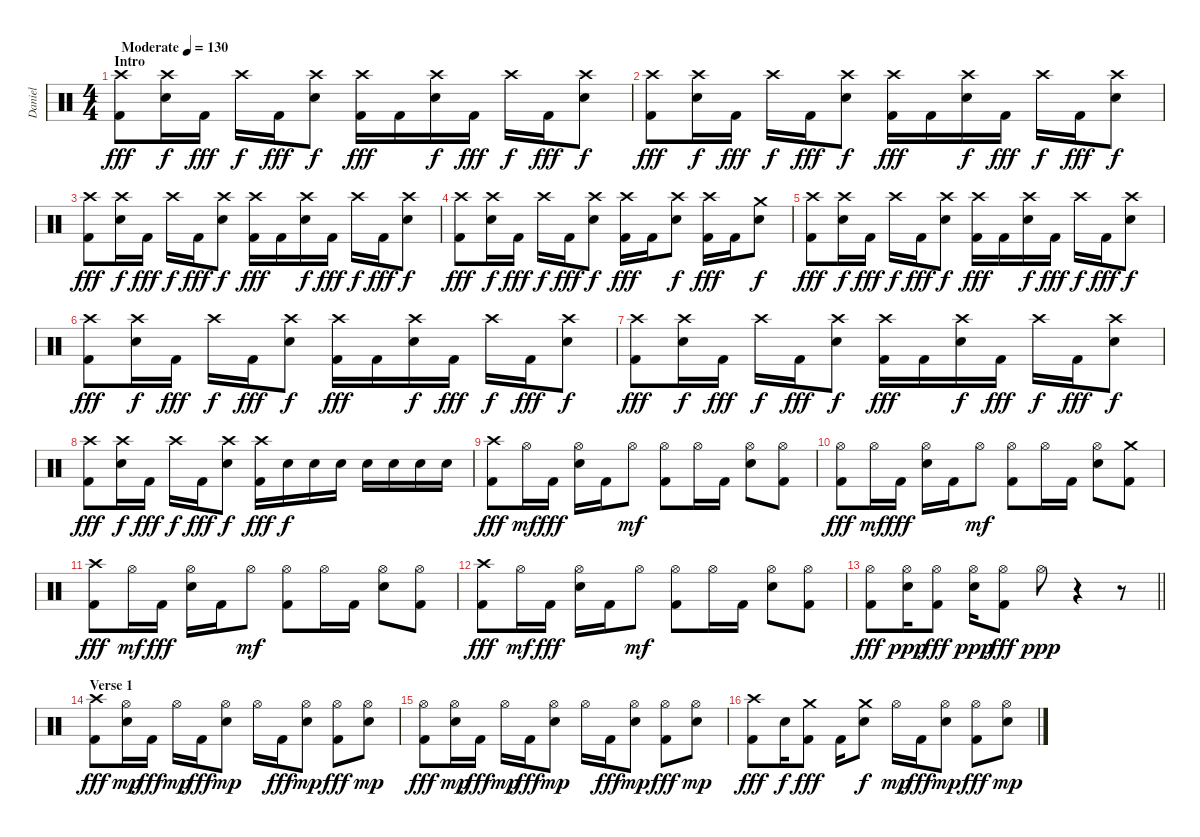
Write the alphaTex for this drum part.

\track ("Daniel" "Daniel") {instrument percussion}
\staff {score}
\articulation defaults
\ts (4 4)
\section ("" "Intro")
\tempo (130 "Moderate")
\clef neutral
\ks c
("Crash high (hit)" "Kick (hit) 2").8{dy fff} ("Crash high (hit)" "Electric Snare (hit)").16{dy f} "Kick (hit) 2".16{dy fff} "Crash high (hit)".16{dy f} "Kick (hit) 2".16{dy fff} ("Crash high (hit)" "Electric Snare (hit)").8{dy f} ("Crash high (hit)" "Kick (hit) 2").16{dy fff} "Kick (hit) 2".16 ("Crash high (hit)" "Electric Snare (hit)").16{dy f} "Kick (hit) 2".16{dy fff} "Crash high (hit)".16{dy f} "Kick (hit) 2".16{dy fff} ("Crash high (hit)" "Electric Snare (hit)").8{dy f} |
("Crash high (hit)" "Kick (hit) 2").8{dy fff} ("Crash high (hit)" "Electric Snare (hit)").16{dy f} "Kick (hit) 2".16{dy fff} "Crash high (hit)".16{dy f} "Kick (hit) 2".16{dy fff} ("Crash high (hit)" "Electric Snare (hit)").8{dy f} ("Crash high (hit)" "Kick (hit) 2").16{dy fff} "Kick (hit) 2".16 ("Crash high (hit)" "Electric Snare (hit)").16{dy f} "Kick (hit) 2".16{dy fff} "Crash high (hit)".16{dy f} "Kick (hit) 2".16{dy fff} ("Crash high (hit)" "Electric Snare (hit)").8{dy f} |
("Crash high (hit)" "Kick (hit) 2").8{dy fff} ("Crash high (hit)" "Electric Snare (hit)").16{dy f} "Kick (hit) 2".16{dy fff} "Crash high (hit)".16{dy f} "Kick (hit) 2".16{dy fff} ("Crash high (hit)" "Electric Snare (hit)").8{dy f} ("Crash high (hit)" "Kick (hit) 2").16{dy fff} "Kick (hit) 2".16 ("Crash high (hit)" "Electric Snare (hit)").16{dy f} "Kick (hit) 2".16{dy fff} "Crash high (hit)".16{dy f} "Kick (hit) 2".16{dy fff} ("Crash high (hit)" "Electric Snare (hit)").8{dy f} |
("Crash high (hit)" "Kick (hit) 2").8{dy fff} ("Crash high (hit)" "Electric Snare (hit)").16{dy f} "Kick (hit) 2".16{dy fff} "Crash high (hit)".16{dy f} "Kick (hit) 2".16{dy fff} ("Crash high (hit)" "Electric Snare (hit)").8{dy f} ("Crash high (hit)" "Kick (hit) 2").16{dy fff} "Kick (hit) 2".16 ("Crash high (hit)" "Electric Snare (hit)").8{dy f} ("Crash high (hit)" "Kick (hit) 2").16{dy fff} "Kick (hit) 2".16 ("Crash medium (hit)" "Electric Snare (hit)").8{dy f} |
("Crash high (hit)" "Kick (hit) 2").8{dy fff} ("Crash high (hit)" "Electric Snare (hit)").16{dy f} "Kick (hit) 2".16{dy fff} "Crash high (hit)".16{dy f} "Kick (hit) 2".16{dy fff} ("Crash high (hit)" "Electric Snare (hit)").8{dy f} ("Crash high (hit)" "Kick (hit) 2").16{dy fff} "Kick (hit) 2".16 ("Crash high (hit)" "Electric Snare (hit)").16{dy f} "Kick (hit) 2".16{dy fff} "Crash high (hit)".16{dy f} "Kick (hit) 2".16{dy fff} ("Crash high (hit)" "Electric Snare (hit)").8{dy f} |
("Crash high (hit)" "Kick (hit) 2").8{dy fff} ("Crash high (hit)" "Electric Snare (hit)").16{dy f} "Kick (hit) 2".16{dy fff} "Crash high (hit)".16{dy f} "Kick (hit) 2".16{dy fff} ("Crash high (hit)" "Electric Snare (hit)").8{dy f} ("Crash high (hit)" "Kick (hit) 2").16{dy fff} "Kick (hit) 2".16 ("Crash high (hit)" "Electric Snare (hit)").16{dy f} "Kick (hit) 2".16{dy fff} "Crash high (hit)".16{dy f} "Kick (hit) 2".16{dy fff} ("Crash high (hit)" "Electric Snare (hit)").8{dy f} |
("Crash high (hit)" "Kick (hit) 2").8{dy fff} ("Crash high (hit)" "Electric Snare (hit)").16{dy f} "Kick (hit) 2".16{dy fff} "Crash high (hit)".16{dy f} "Kick (hit) 2".16{dy fff} ("Crash high (hit)" "Electric Snare (hit)").8{dy f} ("Crash high (hit)" "Kick (hit) 2").16{dy fff} "Kick (hit) 2".16 ("Crash high (hit)" "Electric Snare (hit)").16{dy f} "Kick (hit) 2".16{dy fff} "Crash high (hit)".16{dy f} "Kick (hit) 2".16{dy fff} ("Crash high (hit)" "Electric Snare (hit)").8{dy f} |
("Crash high (hit)" "Kick (hit) 2").8{dy fff} ("Crash high (hit)" "Electric Snare (hit)").16{dy f} "Kick (hit) 2".16{dy fff} "Crash high (hit)".16{dy f} "Kick (hit) 2".16{dy fff} ("Crash high (hit)" "Electric Snare (hit)").8{dy f} ("Crash high (hit)" "Kick (hit) 2").16{dy fff} "Electric Snare (hit)".16{dy f} "Electric Snare (hit)".16 "Electric Snare (hit)".16 "Electric Snare (hit)".16 "Electric Snare (hit)".16 "Electric Snare (hit)".16 "Electric Snare (hit)".16 |
("Crash high (hit)" "Kick (hit) 2").8{dy fff} "Hi-Hat (open)".16{dy mf} "Kick (hit) 2".16{dy fff} ("Hi-Hat (open)" "Electric Snare (hit)").16 "Kick (hit) 2".16 "Hi-Hat (open)".8{dy mf} ("Hi-Hat (open)" "Kick (hit) 2").8 "Hi-Hat (open)".16 "Kick (hit) 2".16 ("Hi-Hat (open)" "Electric Snare (hit)").8 ("Hi-Hat (open)" "Kick (hit) 2").8 |
("Hi-Hat (open)" "Kick (hit) 2").8{dy fff} "Hi-Hat (open)".16{dy mf} "Kick (hit) 2".16{dy fff} ("Hi-Hat (open)" "Electric Snare (hit)").16 "Kick (hit) 2".16 "Hi-Hat (open)".8{dy mf} ("Hi-Hat (open)" "Kick (hit) 2").8 "Hi-Hat (open)".16 "Kick (hit) 2".16 ("Hi-Hat (open)" "Electric Snare (hit)").8 ("Crash medium (hit)" "Kick (hit) 2").8 |
("Crash high (hit)" "Kick (hit) 2").8{dy fff} "Hi-Hat (open)".16{dy mf} "Kick (hit) 2".16{dy fff} ("Hi-Hat (open)" "Electric Snare (hit)").16 "Kick (hit) 2".16 "Hi-Hat (open)".8{dy mf} ("Hi-Hat (open)" "Kick (hit) 2").8 "Hi-Hat (open)".16 "Kick (hit) 2".16 ("Hi-Hat (open)" "Electric Snare (hit)").8 ("Hi-Hat (open)" "Kick (hit) 2").8 |
("Crash high (hit)" "Kick (hit) 2").8{dy fff} "Hi-Hat (open)".16{dy mf} "Kick (hit) 2".16{dy fff} ("Hi-Hat (open)" "Electric Snare (hit)").16 "Kick (hit) 2".16 "Hi-Hat (open)".8{dy mf} ("Hi-Hat (open)" "Kick (hit) 2").8 "Hi-Hat (open)".16 "Kick (hit) 2".16 ("Hi-Hat (open)" "Electric Snare (hit)").8 ("Hi-Hat (open)" "Kick (hit) 2").8 |
\barLineRight lightlight
("Hi-Hat (open)" "Kick (hit) 2").8{dy fff} ("Hi-Hat (open)" "Electric Snare (hit)").16{dy ppp} ("Hi-Hat (open)" "Kick (hit) 2").8{dy fff} ("Hi-Hat (open)" "Electric Snare (hit)").16{dy ppp} ("Hi-Hat (open)" "Kick (hit) 2").8{dy fff} "Hi-Hat (open)".8{dy ppp} r.4 r.8 |
\section ("" "Verse 1")
("Crash high (hit)" "Kick (hit) 2").8{dy fff} ("Hi-Hat (open)" "Electric Snare (hit)").16{dy mp} "Kick (hit) 2".16{dy fff} "Hi-Hat (open)".16{dy mp} "Kick (hit) 2".16{dy fff} ("Hi-Hat (open)" "Electric Snare (hit)").8{dy mp} "Hi-Hat (open)".16 "Kick (hit) 2".16{dy fff} ("Hi-Hat (open)" "Electric Snare (hit)").8{dy mp} ("Hi-Hat (open)" "Kick (hit) 2").8{dy fff} ("Hi-Hat (open)" "Electric Snare (hit)").8{dy mp} |
("Hi-Hat (open)" "Kick (hit) 2").8{dy fff} ("Hi-Hat (open)" "Electric Snare (hit)").16{dy mp} "Kick (hit) 2".16{dy fff} "Hi-Hat (open)".16{dy mp} "Kick (hit) 2".16{dy fff} ("Hi-Hat (open)" "Electric Snare (hit)").8{dy mp} "Hi-Hat (open)".16 "Kick (hit) 2".16{dy fff} ("Hi-Hat (open)" "Electric Snare (hit)").8{dy mp} ("Hi-Hat (open)" "Kick (hit) 2").8{dy fff} ("Hi-Hat (open)" "Electric Snare (hit)").8{dy mp} |
("Crash high (hit)" "Kick (hit) 2").8{dy fff} "Electric Snare (hit)".16{dy f} ("Crash medium (hit)" "Kick (hit) 2").8{dy fff} "Kick (hit) 2".16 ("Crash medium (hit)" "Electric Snare (hit)").8{dy f} "Hi-Hat (open)".16{dy mp} "Kick (hit) 2".16{dy fff} ("Hi-Hat (open)" "Electric Snare (hit)").8{dy mp} ("Hi-Hat (open)" "Kick (hit) 2").8{dy fff} ("Hi-Hat (open)" "Electric Snare (hit)").8{dy mp}
